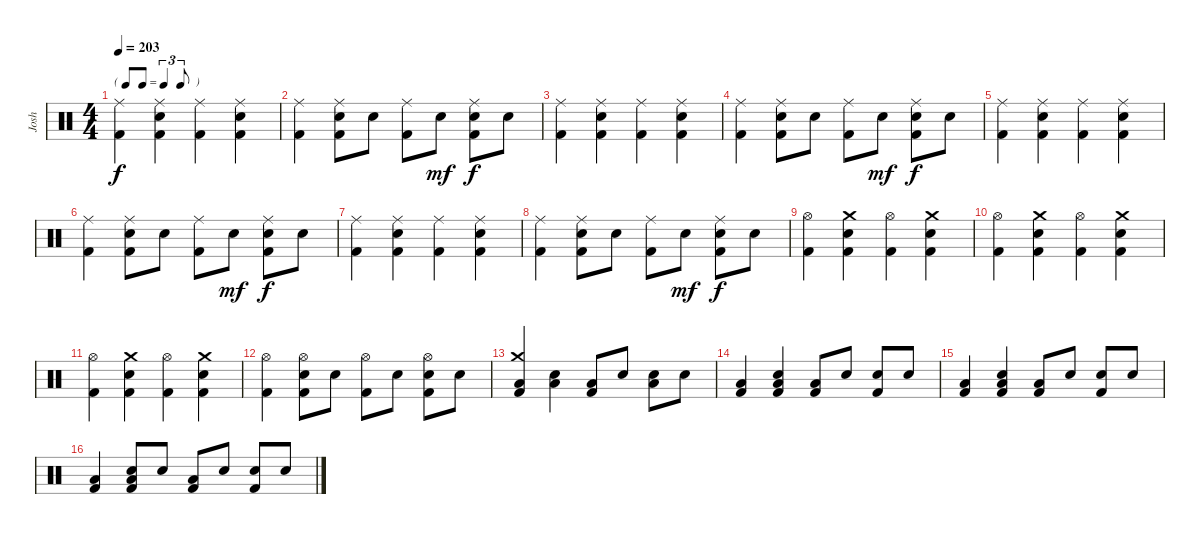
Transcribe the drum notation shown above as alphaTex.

\track ("Josh" "Josh") {instrument percussion}
\staff {score}
\articulation defaults
\ts (4 4)
\tf triplet8th
\tempo 203
\clef neutral
\ks c
("Ride (middle)" "Kick (hit) 2").4{dy f} ("Ride (middle)" "Electric Snare (hit)" "Kick (hit) 2").4 ("Ride (middle)" "Kick (hit) 2").4 ("Ride (middle)" "Electric Snare (hit)" "Kick (hit) 2").4 |
("Ride (middle)" "Kick (hit) 2").4 ("Ride (middle)" "Electric Snare (hit)" "Kick (hit) 2").8 "Electric Snare (hit)".8 ("Ride (middle)" "Kick (hit) 2").8 "Electric Snare (hit)".8{dy mf} ("Ride (middle)" "Electric Snare (hit)" "Kick (hit) 2").8{dy f} "Electric Snare (hit)".8 |
("Ride (middle)" "Kick (hit) 2").4 ("Ride (middle)" "Electric Snare (hit)" "Kick (hit) 2").4 ("Ride (middle)" "Kick (hit) 2").4 ("Ride (middle)" "Electric Snare (hit)" "Kick (hit) 2").4 |
("Ride (middle)" "Kick (hit) 2").4 ("Ride (middle)" "Electric Snare (hit)" "Kick (hit) 2").8 "Electric Snare (hit)".8 ("Ride (middle)" "Kick (hit) 2").8 "Electric Snare (hit)".8{dy mf} ("Ride (middle)" "Electric Snare (hit)" "Kick (hit) 2").8{dy f} "Electric Snare (hit)".8 |
("Ride (middle)" "Kick (hit) 2").4 ("Ride (middle)" "Electric Snare (hit)" "Kick (hit) 2").4 ("Ride (middle)" "Kick (hit) 2").4 ("Ride (middle)" "Electric Snare (hit)" "Kick (hit) 2").4 |
("Ride (middle)" "Kick (hit) 2").4 ("Ride (middle)" "Electric Snare (hit)" "Kick (hit) 2").8 "Electric Snare (hit)".8 ("Ride (middle)" "Kick (hit) 2").8 "Electric Snare (hit)".8{dy mf} ("Ride (middle)" "Electric Snare (hit)" "Kick (hit) 2").8{dy f} "Electric Snare (hit)".8 |
("Ride (middle)" "Kick (hit) 2").4 ("Ride (middle)" "Electric Snare (hit)" "Kick (hit) 2").4 ("Ride (middle)" "Kick (hit) 2").4 ("Ride (middle)" "Electric Snare (hit)" "Kick (hit) 2").4 |
("Ride (middle)" "Kick (hit) 2").4 ("Ride (middle)" "Electric Snare (hit)" "Kick (hit) 2").8 "Electric Snare (hit)".8 ("Ride (middle)" "Kick (hit) 2").8 "Electric Snare (hit)".8{dy mf} ("Ride (middle)" "Electric Snare (hit)" "Kick (hit) 2").8{dy f} "Electric Snare (hit)".8 |
("Hi-Hat (open)" "Kick (hit) 2").4 ("Crash medium (hit)" "Electric Snare (hit)" "Kick (hit) 2").4 ("Hi-Hat (open)" "Kick (hit) 2").4 ("Crash medium (hit)" "Electric Snare (hit)" "Kick (hit) 2").4 |
("Hi-Hat (open)" "Kick (hit) 2").4 ("Crash medium (hit)" "Electric Snare (hit)" "Kick (hit) 2").4 ("Hi-Hat (open)" "Kick (hit) 2").4 ("Crash medium (hit)" "Electric Snare (hit)" "Kick (hit) 2").4 |
("Hi-Hat (open)" "Kick (hit) 2").4 ("Crash medium (hit)" "Electric Snare (hit)" "Kick (hit) 2").4 ("Hi-Hat (open)" "Kick (hit) 2").4 ("Crash medium (hit)" "Electric Snare (hit)" "Kick (hit) 2").4 |
("Hi-Hat (open)" "Kick (hit) 2").4 ("Hi-Hat (open)" "Electric Snare (hit)" "Kick (hit) 2").8 "Electric Snare (hit)".8 ("Hi-Hat (open)" "Kick (hit) 2").8 "Electric Snare (hit)".8 ("Hi-Hat (open)" "Electric Snare (hit)" "Kick (hit) 2").8 "Electric Snare (hit)".8 |
("Crash medium (hit)" "Low Tom (hit)" "Kick (hit) 2").4 ("Low Tom (hit)" "Electric Snare (hit)").4 ("Low Tom (hit)" "Kick (hit) 2").8 "Electric Snare (hit)".8 ("Low Tom (hit)" "Electric Snare (hit)").8 "Electric Snare (hit)".8 |
("Low Tom (hit)" "Kick (hit) 2").4 ("Low Tom (hit)" "Electric Snare (hit)" "Kick (hit) 2").4 ("Low Tom (hit)" "Kick (hit) 2").8 "Electric Snare (hit)".8 ("Electric Snare (hit)" "Kick (hit) 2").8 "Electric Snare (hit)".8 |
("Low Tom (hit)" "Kick (hit) 2").4 ("Low Tom (hit)" "Electric Snare (hit)" "Kick (hit) 2").4 ("Low Tom (hit)" "Kick (hit) 2").8 "Electric Snare (hit)".8 ("Electric Snare (hit)" "Kick (hit) 2").8 "Electric Snare (hit)".8 |
("Low Tom (hit)" "Kick (hit) 2").4 ("Low Tom (hit)" "Electric Snare (hit)" "Kick (hit) 2").8 "Electric Snare (hit)".8 ("Low Tom (hit)" "Kick (hit) 2").8 "Electric Snare (hit)".8 ("Electric Snare (hit)" "Kick (hit) 2").8 "Electric Snare (hit)".8
